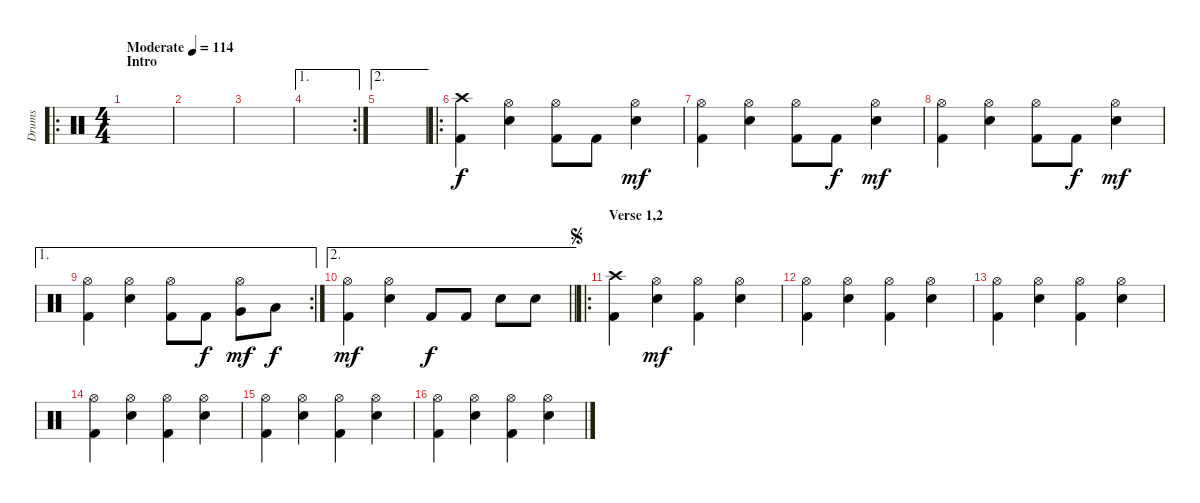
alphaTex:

\track ("Drums" "Drums") {instrument percussion}
\staff {score}
\articulation defaults
\ro
\ts (4 4)
\section ("" "Intro")
\tempo (114 "Moderate")
\clef neutral
\ks c
|
|
|
\ae 1
\rc 2
|
\ae 2
|
\ro
("Crash high (hit)" "Kick (hit) 2").4 ("Hi-Hat (open)" "Snare (hit) 2").4 ("Hi-Hat (open)" "Kick (hit) 2").8 "Kick (hit) 2".8{dy f} ("Hi-Hat (open)" "Snare (hit) 2").4{dy mf} |
("Hi-Hat (open)" "Kick (hit) 2").4 ("Hi-Hat (open)" "Snare (hit) 2").4 ("Hi-Hat (open)" "Kick (hit) 2").8 "Kick (hit) 2".8{dy f} ("Hi-Hat (open)" "Snare (hit) 2").4{dy mf} |
("Hi-Hat (open)" "Kick (hit) 2").4 ("Hi-Hat (open)" "Snare (hit) 2").4 ("Hi-Hat (open)" "Kick (hit) 2").8 "Kick (hit) 2".8{dy f} ("Hi-Hat (open)" "Snare (hit) 2").4{dy mf} |
\ae 1
\rc 2
("Hi-Hat (open)" "Kick (hit) 2").4 ("Hi-Hat (open)" "Snare (hit) 2").4 ("Hi-Hat (open)" "Kick (hit) 2").8 "Kick (hit) 2".8{dy f} ("Hi-Hat (open)" "Very Low Tom (hit)").8{dy mf} "Low Tom (hit)".8{dy f} |
\ae 2
\barLineRight lightlight
("Hi-Hat (open)" "Kick (hit) 2").4{dy mf} ("Hi-Hat (open)" "Snare (hit) 2").4 "Kick (hit) 2".8{dy f} "Kick (hit) 2".8 "Snare (hit) 2".8 "Snare (hit) 2".8 |
\ro
\section ("" "Verse 1,2")
\jump segno
("Crash high (hit)" "Kick (hit) 2").4 ("Hi-Hat (open)" "Snare (hit) 2").4{dy mf} ("Hi-Hat (open)" "Kick (hit) 2").4 ("Hi-Hat (open)" "Snare (hit) 2").4 |
("Hi-Hat (open)" "Kick (hit) 2").4 ("Hi-Hat (open)" "Snare (hit) 2").4 ("Hi-Hat (open)" "Kick (hit) 2").4 ("Hi-Hat (open)" "Snare (hit) 2").4 |
("Hi-Hat (open)" "Kick (hit) 2").4 ("Hi-Hat (open)" "Snare (hit) 2").4 ("Hi-Hat (open)" "Kick (hit) 2").4 ("Hi-Hat (open)" "Snare (hit) 2").4 |
("Hi-Hat (open)" "Kick (hit) 2").4 ("Hi-Hat (open)" "Snare (hit) 2").4 ("Hi-Hat (open)" "Kick (hit) 2").4 ("Hi-Hat (open)" "Snare (hit) 2").4 |
("Hi-Hat (open)" "Kick (hit) 2").4 ("Hi-Hat (open)" "Snare (hit) 2").4 ("Hi-Hat (open)" "Kick (hit) 2").4 ("Hi-Hat (open)" "Snare (hit) 2").4 |
("Hi-Hat (open)" "Kick (hit) 2").4 ("Hi-Hat (open)" "Snare (hit) 2").4 ("Hi-Hat (open)" "Kick (hit) 2").4 ("Hi-Hat (open)" "Snare (hit) 2").4
